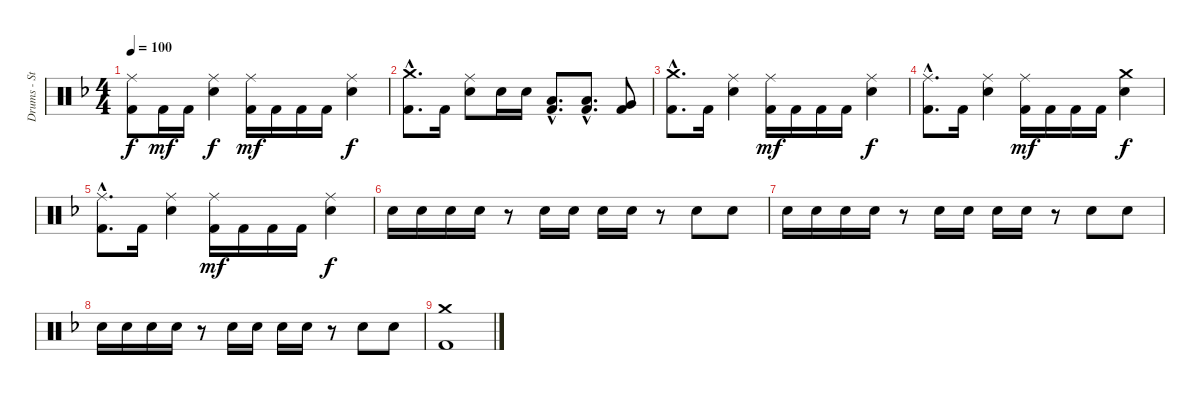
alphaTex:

\track ("Drums - Steve Wacholz" "Drums - St") {instrument percussion}
\staff {score}
\articulation defaults
\ts (4 4)
\tempo 100
\clef neutral
\ks f
("Kick (hit) 2" "Ride (middle)").8{dy f} "Kick (hit) 2".16{dy mf} "Kick (hit) 2".16 ("Electric Snare (hit)" "Ride (middle)").4{dy f} ("Kick (hit) 2" "Ride (middle)").16{dy mf} "Kick (hit) 2".16 "Kick (hit) 2".16 "Kick (hit) 2".16 ("Electric Snare (hit)" "Ride (middle)").4{dy f} |
("Kick (hit) 2"{hac} "Crash medium (hit)"{hac}).8{d} "Kick (hit) 2".16 ("Electric Snare (hit)" "Ride (middle)").8 "Electric Snare (hit)".16 "Electric Snare (hit)".16 ("Kick (hit) 2"{hac} "Low Tom (hit)"{hac}).8{d} ("Kick (hit) 2"{hac} "Low Tom (hit)"{hac}).8{d} ("Kick (hit) 2" "Very Low Tom (hit)").8 |
("Kick (hit) 2"{hac} "Crash medium (hit)"{hac}).8{d} "Kick (hit) 2".16 ("Electric Snare (hit)" "Ride (middle)").4 ("Kick (hit) 2" "Ride (middle)").16{dy mf} "Kick (hit) 2".16 "Kick (hit) 2".16 "Kick (hit) 2".16 ("Electric Snare (hit)" "Ride (middle)").4{dy f} |
("Kick (hit) 2"{hac} "Ride (middle)"{hac}).8{d} "Kick (hit) 2".16 ("Electric Snare (hit)" "Ride (middle)").4 ("Kick (hit) 2" "Ride (middle)").16{dy mf} "Kick (hit) 2".16 "Kick (hit) 2".16 "Kick (hit) 2".16 ("Electric Snare (hit)" "Crash medium (hit)").4{dy f} |
("Kick (hit) 2"{hac} "Ride (middle)"{hac}).8{d} "Kick (hit) 2".16 ("Electric Snare (hit)" "Ride (middle)").4 ("Kick (hit) 2" "Ride (middle)").16{dy mf} "Kick (hit) 2".16 "Kick (hit) 2".16 "Kick (hit) 2".16 ("Electric Snare (hit)" "Ride (middle)").4{dy f} |
"Electric Snare (hit)".16 "Electric Snare (hit)".16 "Electric Snare (hit)".16 "Electric Snare (hit)".16 r.8 "Electric Snare (hit)".16 "Electric Snare (hit)".16 "Electric Snare (hit)".16 "Electric Snare (hit)".16 r.8 "Electric Snare (hit)".8 "Electric Snare (hit)".8 |
"Electric Snare (hit)".16 "Electric Snare (hit)".16 "Electric Snare (hit)".16 "Electric Snare (hit)".16 r.8 "Electric Snare (hit)".16 "Electric Snare (hit)".16 "Electric Snare (hit)".16 "Electric Snare (hit)".16 r.8 "Electric Snare (hit)".8 "Electric Snare (hit)".8 |
"Electric Snare (hit)".16 "Electric Snare (hit)".16 "Electric Snare (hit)".16 "Electric Snare (hit)".16 r.8 "Electric Snare (hit)".16 "Electric Snare (hit)".16 "Electric Snare (hit)".16 "Electric Snare (hit)".16 r.8 "Electric Snare (hit)".8 "Electric Snare (hit)".8 |
("Kick (hit) 2" "Crash medium (hit)").1
